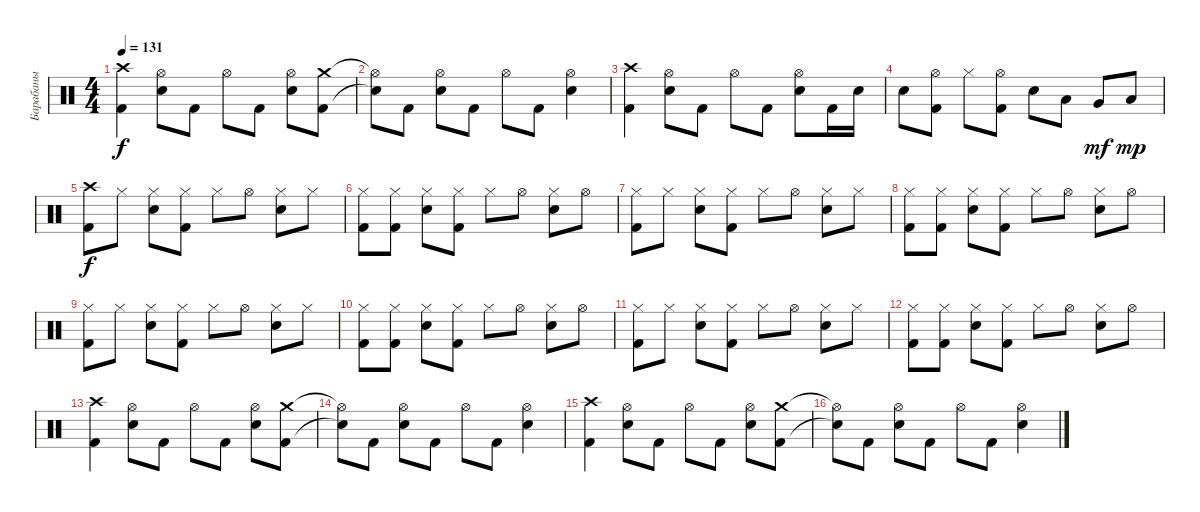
\track ("Барабаны" "Барабаны") {instrument percussion}
\staff {score}
\articulation defaults
\ts (4 4)
\tempo 131
\clef neutral
\ks c
("Crash high (hit)" "Kick (hit) 2").4{dy f} ("Hi-Hat (open)" "Snare (hit) 2").8 "Kick (hit) 2".8 "Hi-Hat (open)".8 "Kick (hit) 2".8 ("Hi-Hat (open)" "Snare (hit) 2").8 ("Crash medium (hit)" "Kick (hit) 2").8 |
("Hi-Hat (open)"{t} "Snare (hit)"{t}).8 "Kick (hit) 2".8 ("Snare (hit) 2" "Hi-Hat (open)").8 "Kick (hit) 2".8 "Hi-Hat (open)".8 "Kick (hit) 2".8 ("Hi-Hat (open)" "Snare (hit) 2").4 |
("Crash high (hit)" "Kick (hit) 2").4 ("Hi-Hat (open)" "Snare (hit) 2").8 "Kick (hit) 2".8 "Hi-Hat (open)".8 "Kick (hit) 2".8 ("Hi-Hat (open)" "Snare (hit) 2").8 "Kick (hit) 2".16 "Snare (hit) 2".16 |
"Snare (hit) 2".8 ("Hi-Hat (open)" "Kick (hit) 2").8 "Hi-Hat (closed)".8 ("Hi-Hat (open)" "Kick (hit) 2").8 "Electric Snare (hit)".8 "Low Tom (hit)".8 "Very Low Tom (hit)".8{dy mf} "Low Floor Tom (hit)".8{dy mp} |
("Crash high (hit)" "Kick (hit) 2").8{dy f} "Hi-Hat (closed)".8 ("Hi-Hat (closed)" "Snare (hit) 2").8 ("Hi-Hat (closed)" "Kick (hit) 2").8 "Hi-Hat (closed)".8 "Hi-Hat (open)".8 ("Hi-Hat (closed)" "Snare (hit) 2").8 "Hi-Hat (closed)".8 |
("Hi-Hat (closed)" "Kick (hit) 2").8 ("Hi-Hat (closed)" "Kick (hit) 2").8 ("Hi-Hat (closed)" "Snare (hit) 2").8 ("Hi-Hat (closed)" "Kick (hit) 2").8 "Hi-Hat (closed)".8 "Hi-Hat (open)".8 ("Hi-Hat (closed)" "Snare (hit) 2").8 "Hi-Hat (open)".8 |
("Hi-Hat (closed)" "Kick (hit) 2").8 "Hi-Hat (closed)".8 ("Hi-Hat (closed)" "Snare (hit) 2").8 ("Hi-Hat (closed)" "Kick (hit) 2").8 "Hi-Hat (closed)".8 "Hi-Hat (open)".8 ("Hi-Hat (closed)" "Snare (hit) 2").8 "Hi-Hat (closed)".8 |
("Hi-Hat (closed)" "Kick (hit) 2").8 ("Hi-Hat (closed)" "Kick (hit) 2").8 ("Hi-Hat (closed)" "Snare (hit) 2").8 ("Hi-Hat (closed)" "Kick (hit) 2").8 "Hi-Hat (closed)".8 "Hi-Hat (open)".8 ("Hi-Hat (closed)" "Snare (hit) 2").8 "Hi-Hat (open)".8 |
("Hi-Hat (closed)" "Kick (hit) 2").8 "Hi-Hat (closed)".8 ("Hi-Hat (closed)" "Snare (hit) 2").8 ("Hi-Hat (closed)" "Kick (hit) 2").8 "Hi-Hat (closed)".8 "Hi-Hat (open)".8 ("Hi-Hat (closed)" "Snare (hit) 2").8 "Hi-Hat (closed)".8 |
("Hi-Hat (closed)" "Kick (hit) 2").8 ("Hi-Hat (closed)" "Kick (hit) 2").8 ("Hi-Hat (closed)" "Snare (hit) 2").8 ("Hi-Hat (closed)" "Kick (hit) 2").8 "Hi-Hat (closed)".8 "Hi-Hat (open)".8 ("Hi-Hat (closed)" "Snare (hit) 2").8 "Hi-Hat (open)".8 |
("Hi-Hat (closed)" "Kick (hit) 2").8 "Hi-Hat (closed)".8 ("Hi-Hat (closed)" "Snare (hit) 2").8 ("Hi-Hat (closed)" "Kick (hit) 2").8 "Hi-Hat (closed)".8 "Hi-Hat (open)".8 ("Hi-Hat (closed)" "Snare (hit) 2").8 "Hi-Hat (closed)".8 |
("Hi-Hat (closed)" "Kick (hit) 2").8 ("Hi-Hat (closed)" "Kick (hit) 2").8 ("Hi-Hat (closed)" "Snare (hit) 2").8 ("Hi-Hat (closed)" "Kick (hit) 2").8 "Hi-Hat (closed)".8 "Hi-Hat (open)".8 ("Hi-Hat (closed)" "Snare (hit) 2").8 "Hi-Hat (open)".8 |
("Crash high (hit)" "Kick (hit) 2").4 ("Hi-Hat (open)" "Snare (hit) 2").8 "Kick (hit) 2".8 "Hi-Hat (open)".8 "Kick (hit) 2".8 ("Hi-Hat (open)" "Snare (hit) 2").8 ("Crash medium (hit)" "Kick (hit) 2").8 |
("Hi-Hat (open)"{t} "Snare (hit)"{t}).8 "Kick (hit) 2".8 ("Snare (hit) 2" "Hi-Hat (open)").8 "Kick (hit) 2".8 "Hi-Hat (open)".8 "Kick (hit) 2".8 ("Hi-Hat (open)" "Snare (hit) 2").4 |
("Crash high (hit)" "Kick (hit) 2").4 ("Hi-Hat (open)" "Snare (hit) 2").8 "Kick (hit) 2".8 "Hi-Hat (open)".8 "Kick (hit) 2".8 ("Hi-Hat (open)" "Snare (hit) 2").8 ("Crash medium (hit)" "Kick (hit) 2").8 |
("Hi-Hat (open)"{t} "Snare (hit)"{t}).8 "Kick (hit) 2".8 ("Snare (hit) 2" "Hi-Hat (open)").8 "Kick (hit) 2".8 "Hi-Hat (open)".8 "Kick (hit) 2".8 ("Hi-Hat (open)" "Snare (hit) 2").4
